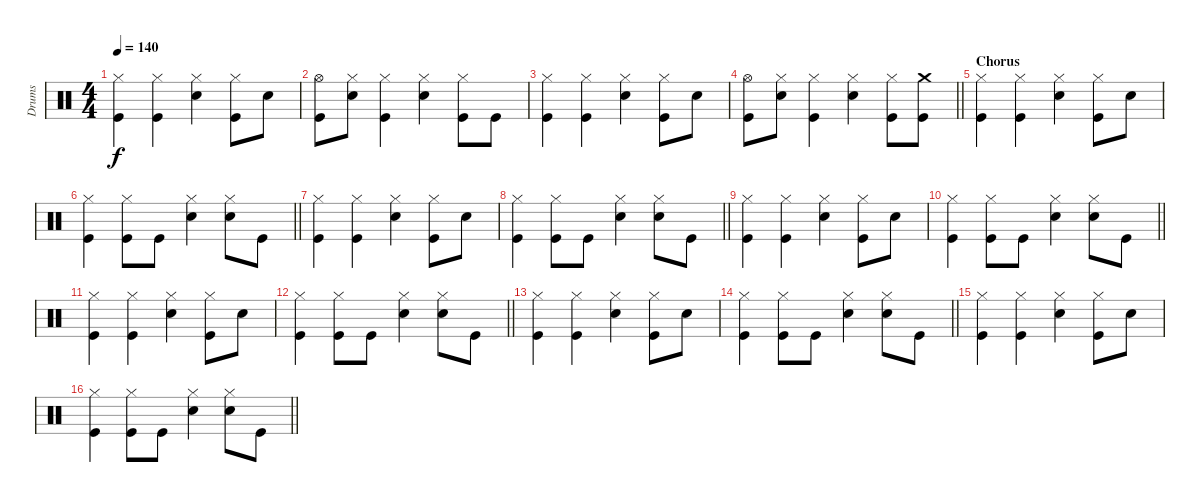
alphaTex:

\track ("Drums" "Drums") {instrument percussion}
\staff {score}
\articulation defaults
\ts (4 4)
\tempo 140
\clef neutral
\ks c
("Hi-Hat (closed)" "Kick (hit)").4{dy f} ("Hi-Hat (closed)" "Kick (hit)").4 ("Hi-Hat (closed)" "Snare (hit) 2").4 ("Hi-Hat (closed)" "Kick (hit)").8 "Snare (hit) 2".8 |
("Hi-Hat (open)" "Kick (hit)").8 ("Hi-Hat (closed)" "Snare (hit) 2").8 ("Hi-Hat (closed)" "Kick (hit)").4 ("Hi-Hat (closed)" "Snare (hit) 2").4 ("Hi-Hat (closed)" "Kick (hit)").8 "Kick (hit)".8 |
("Hi-Hat (closed)" "Kick (hit)").4 ("Hi-Hat (closed)" "Kick (hit)").4 ("Hi-Hat (closed)" "Snare (hit) 2").4 ("Hi-Hat (closed)" "Kick (hit)").8 "Snare (hit) 2".8 |
\barLineRight lightlight
("Hi-Hat (open)" "Kick (hit)").8 ("Hi-Hat (closed)" "Snare (hit) 2").8 ("Hi-Hat (closed)" "Kick (hit)").4 ("Hi-Hat (closed)" "Snare (hit) 2").4 ("Hi-Hat (closed)" "Kick (hit)").8 ("Crash medium (hit)" "Kick (hit)").8 |
\section ("" "Chorus")
("Hi-Hat (closed)" "Kick (hit)").4 ("Hi-Hat (closed)" "Kick (hit)").4 ("Hi-Hat (closed)" "Snare (hit) 2").4 ("Hi-Hat (closed)" "Kick (hit)").8 "Snare (hit) 2".8 |
\barLineRight lightlight
("Hi-Hat (closed)" "Kick (hit)").4 ("Hi-Hat (closed)" "Kick (hit)").8 "Kick (hit)".8 ("Hi-Hat (closed)" "Snare (hit) 2").4 ("Hi-Hat (closed)" "Snare (hit) 2").8 "Kick (hit)".8 |
("Hi-Hat (closed)" "Kick (hit)").4 ("Hi-Hat (closed)" "Kick (hit)").4 ("Hi-Hat (closed)" "Snare (hit) 2").4 ("Hi-Hat (closed)" "Kick (hit)").8 "Snare (hit) 2".8 |
\barLineRight lightlight
("Hi-Hat (closed)" "Kick (hit)").4 ("Hi-Hat (closed)" "Kick (hit)").8 "Kick (hit)".8 ("Hi-Hat (closed)" "Snare (hit) 2").4 ("Hi-Hat (closed)" "Snare (hit) 2").8 "Kick (hit)".8 |
("Hi-Hat (closed)" "Kick (hit)").4 ("Hi-Hat (closed)" "Kick (hit)").4 ("Hi-Hat (closed)" "Snare (hit) 2").4 ("Hi-Hat (closed)" "Kick (hit)").8 "Snare (hit) 2".8 |
\barLineRight lightlight
("Hi-Hat (closed)" "Kick (hit)").4 ("Hi-Hat (closed)" "Kick (hit)").8 "Kick (hit)".8 ("Hi-Hat (closed)" "Snare (hit) 2").4 ("Hi-Hat (closed)" "Snare (hit) 2").8 "Kick (hit)".8 |
("Hi-Hat (closed)" "Kick (hit)").4 ("Hi-Hat (closed)" "Kick (hit)").4 ("Hi-Hat (closed)" "Snare (hit) 2").4 ("Hi-Hat (closed)" "Kick (hit)").8 "Snare (hit) 2".8 |
\barLineRight lightlight
("Hi-Hat (closed)" "Kick (hit)").4 ("Hi-Hat (closed)" "Kick (hit)").8 "Kick (hit)".8 ("Hi-Hat (closed)" "Snare (hit) 2").4 ("Hi-Hat (closed)" "Snare (hit) 2").8 "Kick (hit)".8 |
("Hi-Hat (closed)" "Kick (hit)").4 ("Hi-Hat (closed)" "Kick (hit)").4 ("Hi-Hat (closed)" "Snare (hit) 2").4 ("Hi-Hat (closed)" "Kick (hit)").8 "Snare (hit) 2".8 |
\barLineRight lightlight
("Hi-Hat (closed)" "Kick (hit)").4 ("Hi-Hat (closed)" "Kick (hit)").8 "Kick (hit)".8 ("Hi-Hat (closed)" "Snare (hit) 2").4 ("Hi-Hat (closed)" "Snare (hit) 2").8 "Kick (hit)".8 |
("Hi-Hat (closed)" "Kick (hit)").4 ("Hi-Hat (closed)" "Kick (hit)").4 ("Hi-Hat (closed)" "Snare (hit) 2").4 ("Hi-Hat (closed)" "Kick (hit)").8 "Snare (hit) 2".8 |
\barLineRight lightlight
("Hi-Hat (closed)" "Kick (hit)").4 ("Hi-Hat (closed)" "Kick (hit)").8 "Kick (hit)".8 ("Hi-Hat (closed)" "Snare (hit) 2").4 ("Hi-Hat (closed)" "Snare (hit) 2").8 "Kick (hit)".8
